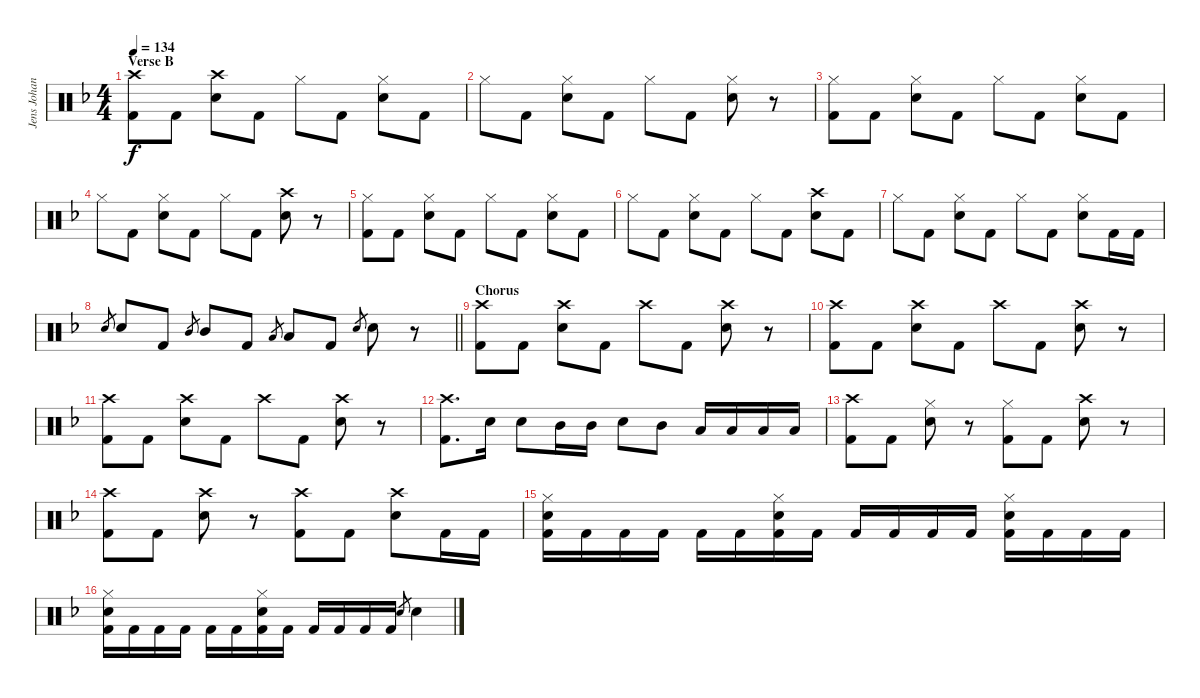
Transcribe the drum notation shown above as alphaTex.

\track ("Jens Johansson" "Jens Johan") {instrument percussion}
\staff {score}
\articulation defaults
\ts (4 4)
\section ("" "Verse B")
\tempo 134
\clef neutral
\ks f
("Crash high (hit)" "Kick (hit) 2").8{dy f} "Kick (hit) 2".8 ("Crash high (hit)" "Electric Snare (hit)").8 "Kick (hit) 2".8 "Hi-Hat (closed)".8 "Kick (hit) 2".8 ("Electric Snare (hit)" "Hi-Hat (closed)").8 "Kick (hit) 2".8 |
"Hi-Hat (closed)".8 "Kick (hit) 2".8 ("Electric Snare (hit)" "Hi-Hat (closed)").8 "Kick (hit) 2".8 "Hi-Hat (closed)".8 "Kick (hit) 2".8 ("Electric Snare (hit)" "Hi-Hat (closed)").8 r.8 |
("Hi-Hat (closed)" "Kick (hit) 2").8 "Kick (hit) 2".8 ("Electric Snare (hit)" "Hi-Hat (closed)").8 "Kick (hit) 2".8 "Hi-Hat (closed)".8 "Kick (hit) 2".8 ("Electric Snare (hit)" "Hi-Hat (closed)").8 "Kick (hit) 2".8 |
"Hi-Hat (closed)".8 "Kick (hit) 2".8 ("Electric Snare (hit)" "Hi-Hat (closed)").8 "Kick (hit) 2".8 "Hi-Hat (closed)".8 "Kick (hit) 2".8 ("Crash high (hit)" "Electric Snare (hit)").8 r.8 |
("Hi-Hat (closed)" "Kick (hit) 2").8 "Kick (hit) 2".8 ("Electric Snare (hit)" "Hi-Hat (closed)").8 "Kick (hit) 2".8 "Hi-Hat (closed)".8 "Kick (hit) 2".8 ("Electric Snare (hit)" "Hi-Hat (closed)").8 "Kick (hit) 2".8 |
"Hi-Hat (closed)".8 "Kick (hit) 2".8 ("Electric Snare (hit)" "Hi-Hat (closed)").8 "Kick (hit) 2".8 "Hi-Hat (closed)".8 "Kick (hit) 2".8 ("Crash high (hit)" "Electric Snare (hit)").8 "Kick (hit) 2".8 |
"Hi-Hat (closed)".8 "Kick (hit) 2".8 ("Electric Snare (hit)" "Hi-Hat (closed)").8 "Kick (hit) 2".8 "Hi-Hat (closed)".8 "Kick (hit) 2".8 ("Electric Snare (hit)" "Hi-Hat (closed)").8 "Kick (hit) 2".16 "Kick (hit) 2".16 |
\barLineRight lightlight "Electric Snare (hit)".8{gr} "Electric Snare (hit)".8 "Kick (hit) 2".8 "Mid Tom (hit)".8{gr} "Mid Tom (hit)".8 "Kick (hit) 2".8 "Low Tom (hit)".8{gr} "Low Tom (hit)".8 "Kick (hit) 2".8 "Electric Snare (hit)".8{gr} "Electric Snare (hit)".8
r.8 |
\section ("" "Chorus")
("Crash high (hit)" "Kick (hit) 2").8 "Kick (hit) 2".8 ("Crash high (hit)" "Electric Snare (hit)").8 "Kick (hit) 2".8 "Crash high (hit)".8 "Kick (hit) 2".8 ("Crash high (hit)" "Electric Snare (hit)").8 r.8 |
("Crash high (hit)" "Kick (hit) 2").8 "Kick (hit) 2".8 ("Crash high (hit)" "Electric Snare (hit)").8 "Kick (hit) 2".8 "Crash high (hit)".8 "Kick (hit) 2".8 ("Crash high (hit)" "Electric Snare (hit)").8 r.8 |
("Crash high (hit)" "Kick (hit) 2").8 "Kick (hit) 2".8 ("Crash high (hit)" "Electric Snare (hit)").8 "Kick (hit) 2".8 "Crash high (hit)".8 "Kick (hit) 2".8 ("Crash high (hit)" "Electric Snare (hit)").8 r.8 |
("Crash high (hit)" "Kick (hit) 2").8{d} "Electric Snare (hit)".16 "Electric Snare (hit)".8 "Mid Tom (hit)".16 "Mid Tom (hit)".16 "Electric Snare (hit)".8 "Mid Tom (hit)".8 "Low Tom (hit)".16 "Low Tom (hit)".16 "Low Tom (hit)".16 "Low Tom (hit)".16 |
("Crash high (hit)" "Kick (hit) 2").8 "Kick (hit) 2".8 ("Electric Snare (hit)" "Hi-Hat (closed)").8 r.8 ("Hi-Hat (closed)" "Kick (hit) 2").8 "Kick (hit) 2".8 ("Crash high (hit)" "Electric Snare (hit)").8 r.8 |
("Crash high (hit)" "Kick (hit) 2").8 "Kick (hit) 2".8 ("Crash high (hit)" "Electric Snare (hit)").8 r.8 ("Crash high (hit)" "Kick (hit) 2").8 "Kick (hit) 2".8 ("Crash high (hit)" "Electric Snare (hit)").8 "Kick (hit) 2".16 "Kick (hit) 2".16 |
("Electric Snare (hit)" "Hi-Hat (closed)" "Kick (hit) 2").16 "Kick (hit) 2".16 "Kick (hit) 2".16 "Kick (hit) 2".16 "Kick (hit) 2".16 "Kick (hit) 2".16 ("Electric Snare (hit)" "Hi-Hat (closed)" "Kick (hit) 2").16 "Kick (hit) 2".16 "Kick (hit) 2".16 "Kick (hit) 2".16 "Kick (hit) 2".16 "Kick (hit) 2".16 ("Electric Snare (hit)" "Hi-Hat (closed)" "Kick (hit) 2").16 "Kick (hit) 2".16 "Kick (hit) 2".16 "Kick (hit) 2".16 |
("Electric Snare (hit)" "Hi-Hat (closed)" "Kick (hit) 2").16 "Kick (hit) 2".16 "Kick (hit) 2".16 "Kick (hit) 2".16 "Kick (hit) 2".16 "Kick (hit) 2".16 ("Electric Snare (hit)" "Hi-Hat (closed)" "Kick (hit) 2").16 "Kick (hit) 2".16 "Kick (hit) 2".16 "Kick (hit) 2".16 "Kick (hit) 2".16 "Kick (hit) 2".16 "Electric Snare (hit)".8{gr} "Electric Snare (hit)".4
